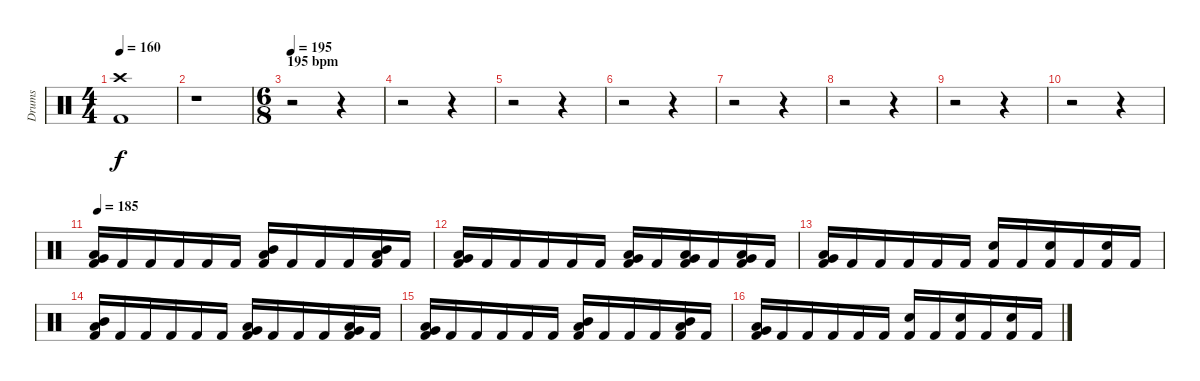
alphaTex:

\track ("Drums" "Drums") {instrument percussion}
\staff {score}
\articulation defaults
\ts (4 4)
\tempo 160
\clef neutral
\ks c
("Kick (hit) 2" "Crash high (hit)").1{dy f} |
r.1 |
\ts (6 8)
\section ("" "195 bpm")
\tempo 195
r.2 r.4 |
r.2 r.4 |
r.2 r.4 |
r.2 r.4 |
r.2 r.4 |
r.2 r.4 |
r.2 r.4 |
r.2 r.4 |
\tempo 185
("Kick (hit) 2" "Very Low Tom (hit)" "Low Tom (hit)").16 "Kick (hit) 2".16 "Kick (hit) 2".16 "Kick (hit) 2".16 "Kick (hit) 2".16 "Kick (hit) 2".16 ("Kick (hit) 2" "Low Tom (hit)" "Mid Tom (hit)").16 "Kick (hit) 2".16 "Kick (hit) 2".16 "Kick (hit) 2".16 ("Kick (hit) 2" "Low Tom (hit)" "Mid Tom (hit)").16 "Kick (hit) 2".16 |
("Kick (hit) 2" "Very Low Tom (hit)" "Low Tom (hit)").16 "Kick (hit) 2".16 "Kick (hit) 2".16 "Kick (hit) 2".16 "Kick (hit) 2".16 "Kick (hit) 2".16 ("Kick (hit) 2" "Low Floor Tom (hit)" "Very Low Tom (hit)").16 "Kick (hit) 2".16 ("Kick (hit) 2" "Low Floor Tom (hit)" "Very Low Tom (hit)").16 "Kick (hit) 2".16 ("Kick (hit) 2" "Low Floor Tom (hit)" "Very Low Tom (hit)").16 "Kick (hit) 2".16 |
("Kick (hit) 2" "Very Low Tom (hit)" "Low Tom (hit)").16 "Kick (hit) 2".16 "Kick (hit) 2".16 "Kick (hit) 2".16 "Kick (hit) 2".16 "Kick (hit) 2".16 ("Kick (hit) 2" "Electric Snare (hit)").16 "Kick (hit) 2".16 ("Kick (hit) 2" "Electric Snare (hit)").16 "Kick (hit) 2".16 ("Kick (hit) 2" "Electric Snare (hit)").16 "Kick (hit) 2".16 |
("Kick (hit) 2" "Low Tom (hit)" "Mid Tom (hit)").16 "Kick (hit) 2".16 "Kick (hit) 2".16 "Kick (hit) 2".16 "Kick (hit) 2".16 "Kick (hit) 2".16 ("Kick (hit) 2" "Very Low Tom (hit)" "Low Tom (hit)").16 "Kick (hit) 2".16 "Kick (hit) 2".16 "Kick (hit) 2".16 ("Kick (hit) 2" "Very Low Tom (hit)" "Low Tom (hit)").16 "Kick (hit) 2".16 |
("Kick (hit) 2" "Low Floor Tom (hit)" "Very Low Tom (hit)").16 "Kick (hit) 2".16 "Kick (hit) 2".16 "Kick (hit) 2".16 "Kick (hit) 2".16 "Kick (hit) 2".16 ("Kick (hit) 2" "Low Tom (hit)" "Mid Tom (hit)").16 "Kick (hit) 2".16 "Kick (hit) 2".16 "Kick (hit) 2".16 ("Kick (hit) 2" "Low Tom (hit)" "Mid Tom (hit)").16 "Kick (hit) 2".16 |
("Kick (hit) 2" "Very Low Tom (hit)" "Low Tom (hit)").16 "Kick (hit) 2".16 "Kick (hit) 2".16 "Kick (hit) 2".16 "Kick (hit) 2".16 "Kick (hit) 2".16 ("Kick (hit) 2" "Electric Snare (hit)").16 "Kick (hit) 2".16 ("Kick (hit) 2" "Electric Snare (hit)").16 "Kick (hit) 2".16 ("Kick (hit) 2" "Electric Snare (hit)").16 "Kick (hit) 2".16
